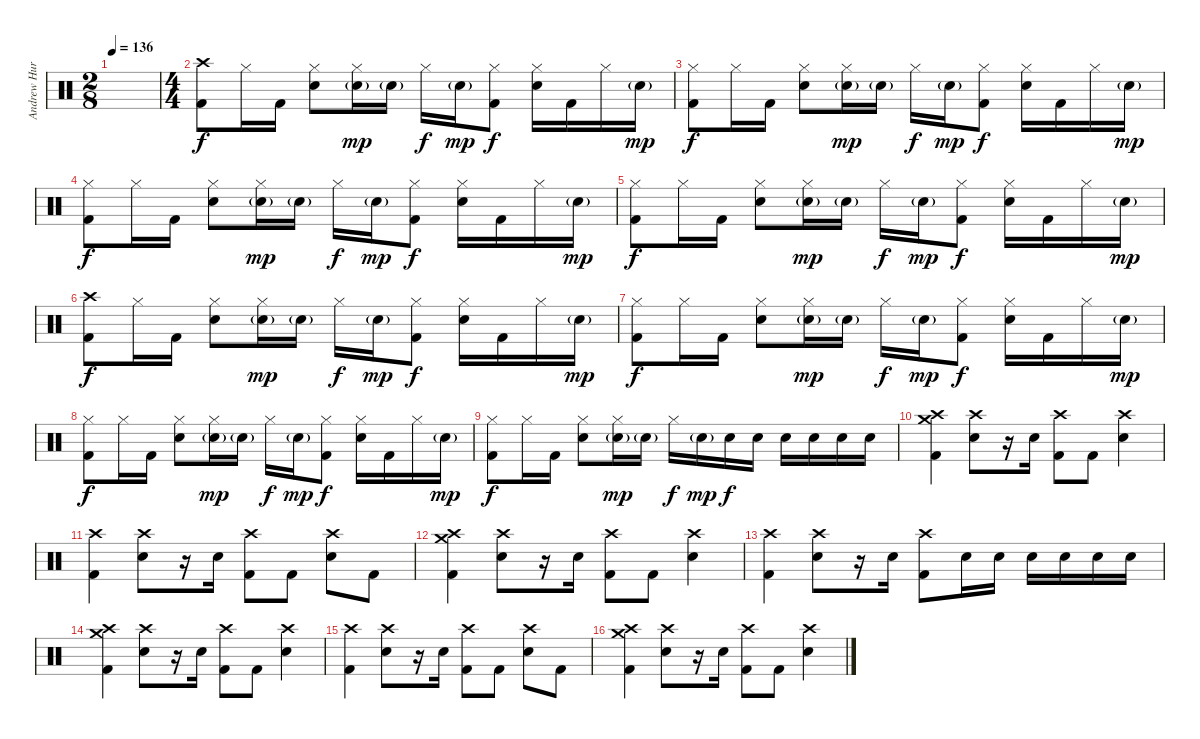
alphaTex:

\track ("Andrew Hurley (Drums)" "Andrew Hur") {instrument percussion}
\staff {score}
\articulation defaults
\ts (2 8)
\tempo 136
\clef neutral
\ks c
|
\ts (4 4)
("Crash high (hit)" "Kick (hit) 2").8 "Hi-Hat (closed)".16 "Kick (hit) 2".16 ("Hi-Hat (closed)" "Snare (hit) 2").8 ("Hi-Hat (closed)" "Snare (hit) 2"{g}).16{dy mp} "Snare (hit) 2"{g}.16 "Hi-Hat (closed)".16{dy f} "Snare (hit) 2"{g}.16{dy mp} ("Hi-Hat (closed)" "Kick (hit) 2").8{dy f} ("Hi-Hat (closed)" "Snare (hit) 2").16 "Kick (hit) 2".16 "Hi-Hat (closed)".16 "Snare (hit) 2"{g}.16{dy mp} |
("Hi-Hat (closed)" "Kick (hit) 2").8{dy f} "Hi-Hat (closed)".16 "Kick (hit) 2".16 ("Hi-Hat (closed)" "Snare (hit) 2").8 ("Hi-Hat (closed)" "Snare (hit) 2"{g}).16{dy mp} "Snare (hit) 2"{g}.16 "Hi-Hat (closed)".16{dy f} "Snare (hit) 2"{g}.16{dy mp} ("Hi-Hat (closed)" "Kick (hit) 2").8{dy f} ("Hi-Hat (closed)" "Snare (hit) 2").16 "Kick (hit) 2".16 "Hi-Hat (closed)".16 "Snare (hit) 2"{g}.16{dy mp} |
("Hi-Hat (closed)" "Kick (hit) 2").8{dy f} "Hi-Hat (closed)".16 "Kick (hit) 2".16 ("Hi-Hat (closed)" "Snare (hit) 2").8 ("Hi-Hat (closed)" "Snare (hit) 2"{g}).16{dy mp} "Snare (hit) 2"{g}.16 "Hi-Hat (closed)".16{dy f} "Snare (hit) 2"{g}.16{dy mp} ("Hi-Hat (closed)" "Kick (hit) 2").8{dy f} ("Hi-Hat (closed)" "Snare (hit) 2").16 "Kick (hit) 2".16 "Hi-Hat (closed)".16 "Snare (hit) 2"{g}.16{dy mp} |
("Hi-Hat (closed)" "Kick (hit) 2").8{dy f} "Hi-Hat (closed)".16 "Kick (hit) 2".16 ("Hi-Hat (closed)" "Snare (hit) 2").8 ("Hi-Hat (closed)" "Snare (hit) 2"{g}).16{dy mp} "Snare (hit) 2"{g}.16 "Hi-Hat (closed)".16{dy f} "Snare (hit) 2"{g}.16{dy mp} ("Hi-Hat (closed)" "Kick (hit) 2").8{dy f} ("Hi-Hat (closed)" "Snare (hit) 2").16 "Kick (hit) 2".16 "Hi-Hat (closed)".16 "Snare (hit) 2"{g}.16{dy mp} |
("Crash high (hit)" "Kick (hit) 2").8{dy f} "Hi-Hat (closed)".16 "Kick (hit) 2".16 ("Hi-Hat (closed)" "Snare (hit) 2").8 ("Hi-Hat (closed)" "Snare (hit) 2"{g}).16{dy mp} "Snare (hit) 2"{g}.16 "Hi-Hat (closed)".16{dy f} "Snare (hit) 2"{g}.16{dy mp} ("Hi-Hat (closed)" "Kick (hit) 2").8{dy f} ("Hi-Hat (closed)" "Snare (hit) 2").16 "Kick (hit) 2".16 "Hi-Hat (closed)".16 "Snare (hit) 2"{g}.16{dy mp} |
("Hi-Hat (closed)" "Kick (hit) 2").8{dy f} "Hi-Hat (closed)".16 "Kick (hit) 2".16 ("Hi-Hat (closed)" "Snare (hit) 2").8 ("Hi-Hat (closed)" "Snare (hit) 2"{g}).16{dy mp} "Snare (hit) 2"{g}.16 "Hi-Hat (closed)".16{dy f} "Snare (hit) 2"{g}.16{dy mp} ("Hi-Hat (closed)" "Kick (hit) 2").8{dy f} ("Hi-Hat (closed)" "Snare (hit) 2").16 "Kick (hit) 2".16 "Hi-Hat (closed)".16 "Snare (hit) 2"{g}.16{dy mp} |
("Hi-Hat (closed)" "Kick (hit) 2").8{dy f} "Hi-Hat (closed)".16 "Kick (hit) 2".16 ("Hi-Hat (closed)" "Snare (hit) 2").8 ("Hi-Hat (closed)" "Snare (hit) 2"{g}).16{dy mp} "Snare (hit) 2"{g}.16 "Hi-Hat (closed)".16{dy f} "Snare (hit) 2"{g}.16{dy mp} ("Hi-Hat (closed)" "Kick (hit) 2").8{dy f} ("Hi-Hat (closed)" "Snare (hit) 2").16 "Kick (hit) 2".16 "Hi-Hat (closed)".16 "Snare (hit) 2"{g}.16{dy mp} |
("Hi-Hat (closed)" "Kick (hit) 2").8{dy f} "Hi-Hat (closed)".16 "Kick (hit) 2".16 ("Hi-Hat (closed)" "Snare (hit) 2").8 ("Hi-Hat (closed)" "Snare (hit) 2"{g}).16{dy mp} "Snare (hit) 2"{g}.16 "Hi-Hat (closed)".16{dy f} "Snare (hit) 2"{g}.16{dy mp} "Snare (hit) 2".16{dy f} "Snare (hit) 2".16 "Snare (hit) 2".16 "Snare (hit) 2".16 "Snare (hit) 2".16 "Snare (hit) 2".16 |
("Crash high (hit)" "Crash medium (hit)" "Kick (hit) 2").4 ("Crash high (hit)" "Snare (hit) 2").8 r.16 "Snare (hit) 2".16 ("Crash high (hit)" "Kick (hit) 2").8 "Kick (hit) 2".8 ("Crash high (hit)" "Snare (hit) 2").4 |
("Crash high (hit)" "Kick (hit) 2").4 ("Crash high (hit)" "Snare (hit) 2").8 r.16 "Snare (hit) 2".16 ("Crash high (hit)" "Kick (hit) 2").8 "Kick (hit) 2".8 ("Crash high (hit)" "Snare (hit) 2").8 "Kick (hit) 2".8 |
("Crash high (hit)" "Crash medium (hit)" "Kick (hit) 2").4 ("Crash high (hit)" "Snare (hit) 2").8 r.16 "Snare (hit) 2".16 ("Crash high (hit)" "Kick (hit) 2").8 "Kick (hit) 2".8 ("Crash high (hit)" "Snare (hit) 2").4 |
("Crash high (hit)" "Kick (hit) 2").4 ("Crash high (hit)" "Snare (hit) 2").8 r.16 "Snare (hit) 2".16 ("Crash high (hit)" "Kick (hit) 2").8 "Snare (hit) 2".16 "Snare (hit) 2".16 "Snare (hit) 2".16 "Snare (hit) 2".16 "Snare (hit) 2".16 "Snare (hit) 2".16 |
("Crash high (hit)" "Crash medium (hit)" "Kick (hit) 2").4 ("Crash high (hit)" "Snare (hit) 2").8 r.16 "Snare (hit) 2".16 ("Crash high (hit)" "Kick (hit) 2").8 "Kick (hit) 2".8 ("Crash high (hit)" "Snare (hit) 2").4 |
("Crash high (hit)" "Kick (hit) 2").4 ("Crash high (hit)" "Snare (hit) 2").8 r.16 "Snare (hit) 2".16 ("Crash high (hit)" "Kick (hit) 2").8 "Kick (hit) 2".8 ("Crash high (hit)" "Snare (hit) 2").8 "Kick (hit) 2".8 |
("Crash high (hit)" "Crash medium (hit)" "Kick (hit) 2").4 ("Crash high (hit)" "Snare (hit) 2").8 r.16 "Snare (hit) 2".16 ("Crash high (hit)" "Kick (hit) 2").8 "Kick (hit) 2".8 ("Crash high (hit)" "Snare (hit) 2").4
